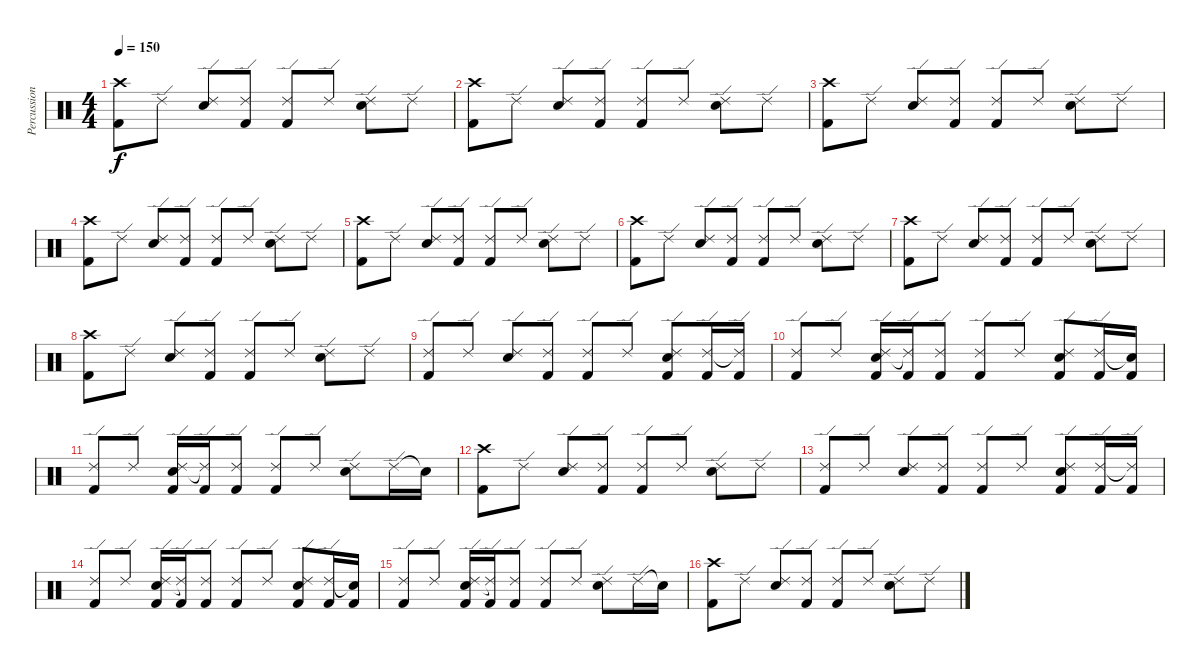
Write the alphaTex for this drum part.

\track ("Percussion" "Percussion") {instrument percussion}
\staff {score}
\articulation defaults
\ts (4 4)
\tempo 150
\clef neutral
\ks c
("Crash high (hit)" "Kick (hit) 2").8{dy f} "Ride (edge) 2".8 ("Ride (edge) 2" "Electric Snare (hit)").8 ("Ride (edge) 2" "Kick (hit) 2").8 ("Ride (edge) 2" "Kick (hit) 2").8 "Ride (edge) 2".8 ("Ride (edge) 2" "Electric Snare (hit)").8 "Ride (edge) 2".8 |
("Crash high (hit)" "Kick (hit) 2").8 "Ride (edge) 2".8 ("Ride (edge) 2" "Electric Snare (hit)").8 ("Ride (edge) 2" "Kick (hit) 2").8 ("Ride (edge) 2" "Kick (hit) 2").8 "Ride (edge) 2".8 ("Ride (edge) 2" "Electric Snare (hit)").8 "Ride (edge) 2".8 |
("Crash high (hit)" "Kick (hit) 2").8 "Ride (edge) 2".8 ("Ride (edge) 2" "Electric Snare (hit)").8 ("Ride (edge) 2" "Kick (hit) 2").8 ("Ride (edge) 2" "Kick (hit) 2").8 "Ride (edge) 2".8 ("Ride (edge) 2" "Electric Snare (hit)").8 "Ride (edge) 2".8 |
("Crash high (hit)" "Kick (hit) 2").8 "Ride (edge) 2".8 ("Ride (edge) 2" "Electric Snare (hit)").8 ("Ride (edge) 2" "Kick (hit) 2").8 ("Ride (edge) 2" "Kick (hit) 2").8 "Ride (edge) 2".8 ("Ride (edge) 2" "Electric Snare (hit)").8 "Ride (edge) 2".8 |
("Crash high (hit)" "Kick (hit) 2").8 "Ride (edge) 2".8 ("Ride (edge) 2" "Electric Snare (hit)").8 ("Ride (edge) 2" "Kick (hit) 2").8 ("Ride (edge) 2" "Kick (hit) 2").8 "Ride (edge) 2".8 ("Ride (edge) 2" "Electric Snare (hit)").8 "Ride (edge) 2".8 |
("Crash high (hit)" "Kick (hit) 2").8 "Ride (edge) 2".8 ("Ride (edge) 2" "Electric Snare (hit)").8 ("Ride (edge) 2" "Kick (hit) 2").8 ("Ride (edge) 2" "Kick (hit) 2").8 "Ride (edge) 2".8 ("Ride (edge) 2" "Electric Snare (hit)").8 "Ride (edge) 2".8 |
("Crash high (hit)" "Kick (hit) 2").8 "Ride (edge) 2".8 ("Ride (edge) 2" "Electric Snare (hit)").8 ("Ride (edge) 2" "Kick (hit) 2").8 ("Ride (edge) 2" "Kick (hit) 2").8 "Ride (edge) 2".8 ("Ride (edge) 2" "Electric Snare (hit)").8 "Ride (edge) 2".8 |
("Crash high (hit)" "Kick (hit) 2").8 "Ride (edge) 2".8 ("Ride (edge) 2" "Electric Snare (hit)").8 ("Ride (edge) 2" "Kick (hit) 2").8 ("Ride (edge) 2" "Kick (hit) 2").8 "Ride (edge) 2".8 ("Ride (edge) 2" "Electric Snare (hit)").8 "Ride (edge) 2".8 |
("Ride (edge) 2" "Kick (hit) 2").8 "Ride (edge) 2".8 ("Ride (edge) 2" "Electric Snare (hit)").8 ("Ride (edge) 2" "Kick (hit) 2").8 ("Ride (edge) 2" "Kick (hit) 2").8 "Ride (edge) 2".8 ("Electric Snare (hit)" "Ride (edge) 2" "Kick (hit) 2").8 ("Ride (edge) 2" "Kick (hit) 2").16 ("Ride (edge) 2"{t} "Kick (hit) 2").16 |
("Ride (edge) 2" "Kick (hit) 2").8 "Ride (edge) 2".8 ("Electric Snare (hit)" "Ride (edge) 2" "Kick (hit) 2").16 ("Ride (edge) 2"{t} "Kick (hit) 2").16 ("Ride (edge) 2" "Kick (hit) 2").8 ("Ride (edge) 2" "Kick (hit) 2").8 "Ride (edge) 2".8 ("Electric Snare (hit)" "Ride (edge) 2" "Kick (hit) 2").8 ("Ride (edge) 2" "Kick (hit) 2").16 ("Snare (hit)"{t} "Kick (hit) 2").16 |
("Ride (edge) 2" "Kick (hit) 2").8 "Ride (edge) 2".8 ("Electric Snare (hit)" "Ride (edge) 2" "Kick (hit) 2").16 ("Ride (edge) 2"{t} "Kick (hit) 2").16 ("Ride (edge) 2" "Kick (hit) 2").8 ("Ride (edge) 2" "Kick (hit) 2").8 "Ride (edge) 2".8 ("Electric Snare (hit)" "Ride (edge) 2").8 "Ride (edge) 2".16 "Snare (hit)"{t}.16 |
("Crash high (hit)" "Kick (hit) 2").8 "Ride (edge) 2".8 ("Ride (edge) 2" "Electric Snare (hit)").8 ("Ride (edge) 2" "Kick (hit) 2").8 ("Ride (edge) 2" "Kick (hit) 2").8 "Ride (edge) 2".8 ("Ride (edge) 2" "Electric Snare (hit)").8 "Ride (edge) 2".8 |
("Ride (edge) 2" "Kick (hit) 2").8 "Ride (edge) 2".8 ("Ride (edge) 2" "Electric Snare (hit)").8 ("Ride (edge) 2" "Kick (hit) 2").8 ("Ride (edge) 2" "Kick (hit) 2").8 "Ride (edge) 2".8 ("Electric Snare (hit)" "Ride (edge) 2" "Kick (hit) 2").8 ("Ride (edge) 2" "Kick (hit) 2").16 ("Ride (edge) 2"{t} "Kick (hit) 2").16 |
("Ride (edge) 2" "Kick (hit) 2").8 "Ride (edge) 2".8 ("Electric Snare (hit)" "Ride (edge) 2" "Kick (hit) 2").16 ("Ride (edge) 2"{t} "Kick (hit) 2").16 ("Ride (edge) 2" "Kick (hit) 2").8 ("Ride (edge) 2" "Kick (hit) 2").8 "Ride (edge) 2".8 ("Electric Snare (hit)" "Ride (edge) 2" "Kick (hit) 2").8 ("Ride (edge) 2" "Kick (hit) 2").16 ("Snare (hit)"{t} "Kick (hit) 2").16 |
("Ride (edge) 2" "Kick (hit) 2").8 "Ride (edge) 2".8 ("Electric Snare (hit)" "Ride (edge) 2" "Kick (hit) 2").16 ("Ride (edge) 2"{t} "Kick (hit) 2").16 ("Ride (edge) 2" "Kick (hit) 2").8 ("Ride (edge) 2" "Kick (hit) 2").8 "Ride (edge) 2".8 ("Electric Snare (hit)" "Ride (edge) 2").8 "Ride (edge) 2".16 "Snare (hit)"{t}.16 |
("Crash high (hit)" "Kick (hit) 2").8 "Ride (edge) 2".8 ("Ride (edge) 2" "Electric Snare (hit)").8 ("Ride (edge) 2" "Kick (hit) 2").8 ("Ride (edge) 2" "Kick (hit) 2").8 "Ride (edge) 2".8 ("Ride (edge) 2" "Electric Snare (hit)").8 "Ride (edge) 2".8
